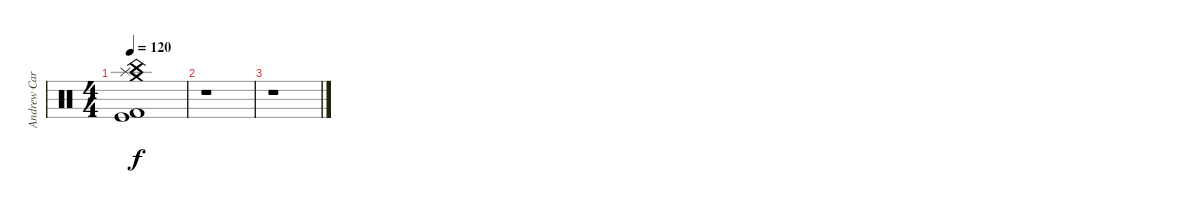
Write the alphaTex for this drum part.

\track ("Andrew Carlston" "Andrew Car") {instrument percussion}
\staff {score}
\articulation defaults
\ts (4 4)
\tempo 120
\clef neutral
\ks c
("China (hit)" "Splash (hit)" "Crash medium (hit)" "Kick (hit)" "Kick (hit) 2").1{dy f} |
r.1 |
r.1
